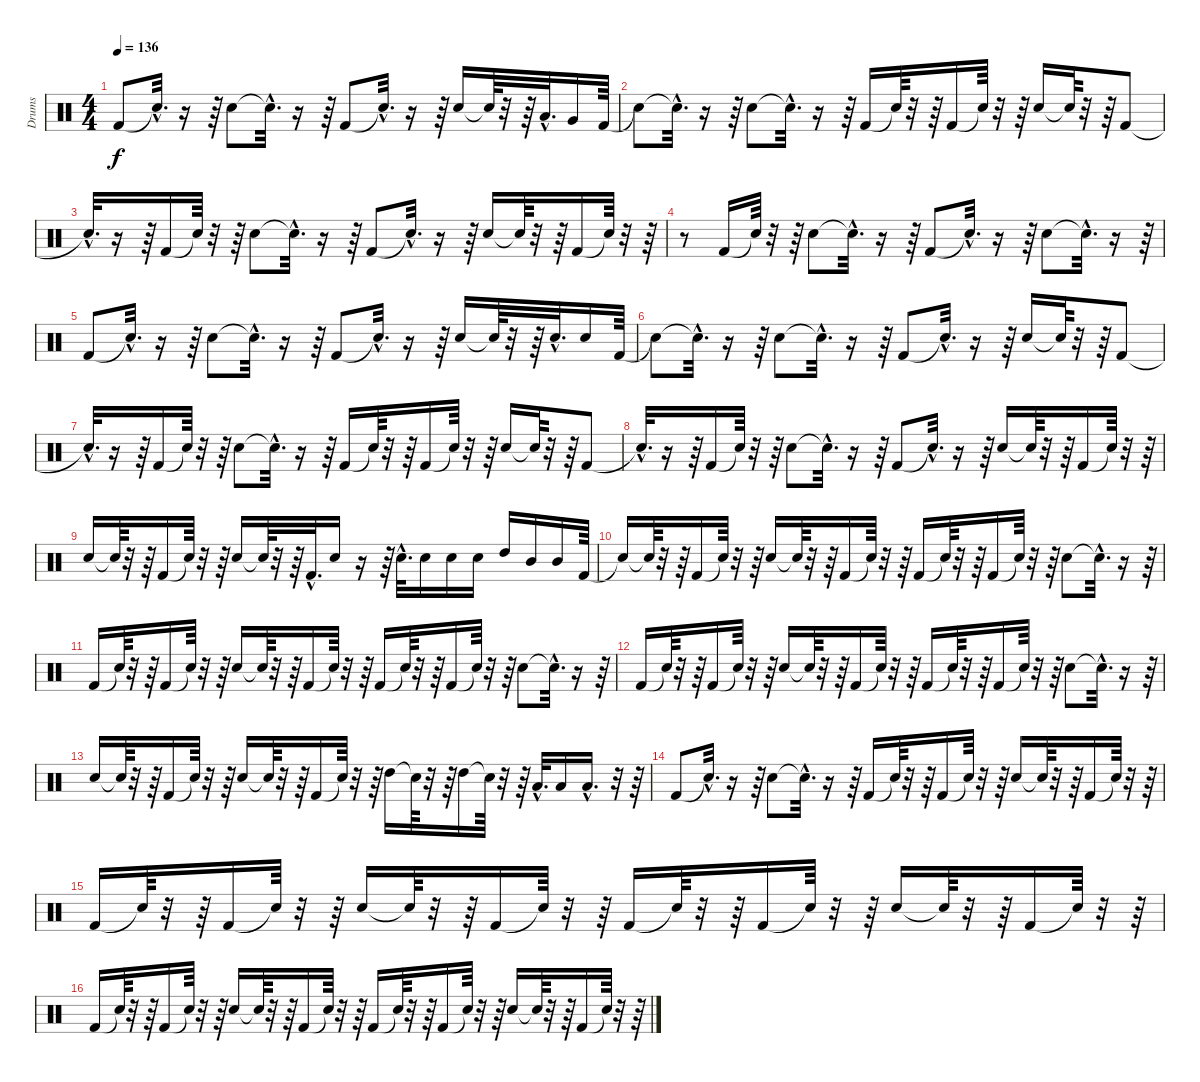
\track ("Drums" "Drums") {instrument percussion}
\staff {score}
\articulation defaults
\ts (4 4)
\tempo 136
\clef neutral
\ks c "Kick (hit) 2".8{dy f} "Snare (hit)"{hac t}.32{d}
r.16 r.64 "Snare (hit) 2".8 "Snare (hit)"{hac t}.32{d} r.16 r.64 "Kick (hit) 2".8 "Snare (hit)"{hac t}.32{d} r.16 r.64 "Snare (hit) 2".16 "Snare (hit)"{t}.64 r.32 r.64 "Low Tom (hit)"{hac}.32{d} "Very Low Tom (hit)".16 "Kick (hit) 2".64 |
"Snare (hit)"{t}.8 "Snare (hit)"{hac t}.32{d} r.16 r.64 "Snare (hit) 2".8 "Snare (hit)"{hac t}.32{d} r.16 r.64 "Kick (hit) 2".16 "Snare (hit)"{t}.64 r.32 r.64 "Kick (hit) 2".16 "Snare (hit)"{t}.64 r.32 r.64 "Snare (hit) 2".16 "Snare (hit)"{t}.64 r.32 r.64 "Kick (hit) 2".8 |
"Snare (hit)"{hac t}.32{d} r.16 r.64 "Kick (hit) 2".16 "Snare (hit)"{t}.64 r.32 r.64 "Snare (hit) 2".8 "Snare (hit)"{hac t}.32{d} r.16 r.64 "Kick (hit) 2".8 "Snare (hit)"{hac t}.32{d} r.16 r.64 "Snare (hit) 2".16 "Snare (hit)"{t}.64 r.32 r.64 "Kick (hit) 2".16 "Snare (hit)"{t}.64 r.32 r.64 |
r.8 "Kick (hit) 2".16 "Snare (hit)"{t}.64 r.32 r.64 "Snare (hit) 2".8 "Snare (hit)"{hac t}.32{d} r.16 r.64 "Kick (hit) 2".8 "Snare (hit)"{hac t}.32{d} r.16 r.64 "Snare (hit) 2".8 "Snare (hit)"{hac t}.32{d} r.16 r.64 |
"Kick (hit) 2".8 "Snare (hit)"{hac t}.32{d} r.16 r.64 "Snare (hit) 2".8 "Snare (hit)"{hac t}.32{d} r.16 r.64 "Kick (hit) 2".8 "Snare (hit)"{hac t}.32{d} r.16 r.64 "Snare (hit) 2".16 "Snare (hit)"{t}.64 r.32 r.64 "Snare (hit) 2"{hac}.32{d} "Snare (hit) 2".16 "Kick (hit) 2".64 |
"Snare (hit)"{t}.8 "Snare (hit)"{hac t}.32{d} r.16 r.64 "Snare (hit) 2".8 "Snare (hit)"{hac t}.32{d} r.16 r.64 "Kick (hit) 2".8 "Snare (hit)"{hac t}.32{d} r.16 r.64 "Snare (hit) 2".16 "Snare (hit)"{t}.64 r.32 r.64 "Kick (hit) 2".8 |
"Snare (hit)"{hac t}.32{d} r.16 r.64 "Kick (hit) 2".16 "Snare (hit)"{t}.64 r.32 r.64 "Snare (hit) 2".8 "Snare (hit)"{hac t}.32{d} r.16 r.64 "Kick (hit) 2".16 "Snare (hit)"{t}.64 r.32 r.64 "Kick (hit) 2".16 "Snare (hit)"{t}.64 r.32 r.64 "Snare (hit) 2".16 "Snare (hit)"{t}.64 r.32 r.64 "Kick (hit) 2".8 |
"Snare (hit)"{hac t}.32{d} r.16 r.64 "Kick (hit) 2".16 "Snare (hit)"{t}.64 r.32 r.64 "Snare (hit) 2".8 "Snare (hit)"{hac t}.32{d} r.16 r.64 "Kick (hit) 2".8 "Snare (hit)"{hac t}.32{d} r.16 r.64 "Snare (hit) 2".16 "Snare (hit)"{t}.64 r.32 r.64 "Kick (hit) 2".16 "Snare (hit)"{t}.64 r.32 r.64 |
"Snare (hit) 2".16 "Snare (hit)"{t}.64 r.32 r.64 "Kick (hit) 2".16 "Snare (hit)"{t}.64 r.32 r.64 "Snare (hit) 2".16 "Snare (hit)"{t}.64 r.32 r.64 "Kick (hit) 2"{hac}.32{d} "Snare (hit) 2".16 r.16 r.64 "Snare (hit) 2"{hac}.32{d} "Snare (hit) 2".16 "Snare (hit) 2".16 "Snare (hit) 2".16 "High Tom (hit)".16 "Mid Tom (hit)".16 "Mid Tom (hit)".16 "Kick (hit) 2".64 |
"Snare (hit)"{t}.16 "Snare (hit)"{t}.64 r.32 r.64 "Kick (hit) 2".16 "Snare (hit)"{t}.64 r.32 r.64 "Snare (hit) 2".16 "Snare (hit)"{t}.64 r.32 r.64 "Kick (hit) 2".16 "Snare (hit)"{t}.64 r.32 r.64 "Kick (hit) 2".16 "Snare (hit)"{t}.64 r.32 r.64 "Kick (hit) 2".16 "Snare (hit)"{t}.64 r.32 r.64 "Snare (hit) 2".8 "Snare (hit)"{hac t}.32{d} r.16 r.64 |
"Kick (hit) 2".16 "Snare (hit)"{t}.64 r.32 r.64 "Kick (hit) 2".16 "Snare (hit)"{t}.64 r.32 r.64 "Snare (hit) 2".16 "Snare (hit)"{t}.64 r.32 r.64 "Kick (hit) 2".16 "Snare (hit)"{t}.64 r.32 r.64 "Kick (hit) 2".16 "Snare (hit)"{t}.64 r.32 r.64 "Kick (hit) 2".16 "Snare (hit)"{t}.64 r.32 r.64 "Snare (hit) 2".8 "Snare (hit)"{hac t}.32{d} r.16 r.64 |
"Kick (hit) 2".16 "Snare (hit)"{t}.64 r.32 r.64 "Kick (hit) 2".16 "Snare (hit)"{t}.64 r.32 r.64 "Snare (hit) 2".16 "Snare (hit)"{t}.64 r.32 r.64 "Kick (hit) 2".16 "Snare (hit)"{t}.64 r.32 r.64 "Kick (hit) 2".16 "Snare (hit)"{t}.64 r.32 r.64 "Kick (hit) 2".16 "Snare (hit)"{t}.64 r.32 r.64 "Snare (hit) 2".8 "Snare (hit)"{hac t}.32{d} r.16 r.64 |
"Snare (hit) 2".16 "Snare (hit)"{t}.64 r.32 r.64 "Kick (hit) 2".16 "Snare (hit)"{t}.64 r.32 r.64 "Snare (hit) 2".16 "Snare (hit)"{t}.64 r.32 r.64 "Kick (hit) 2".16 "Snare (hit)"{t}.64 r.32 r.64 "High Tom (hit)".16 "Snare (hit)"{t}.64 r.32 r.64 "High Tom (hit)".16 "Snare (hit)"{t}.64 r.32 r.64 "Low Tom (hit)"{hac}.32{d} "Low Tom (hit)".16 "Low Floor Tom (hit)"{hac}.16{d} r.32 r.64 |
"Kick (hit) 2".8 "Snare (hit)"{hac t}.32{d} r.16 r.64 "Snare (hit) 2".8 "Snare (hit)"{hac t}.32{d} r.16 r.64 "Kick (hit) 2".16 "Snare (hit)"{t}.64 r.32 r.64 "Kick (hit) 2".16 "Snare (hit)"{t}.64 r.32 r.64 "Snare (hit) 2".16 "Snare (hit)"{t}.64 r.32 r.64 "Kick (hit) 2".16 "Snare (hit)"{t}.64 r.32 r.64 |
"Kick (hit) 2".16 "Snare (hit)"{t}.64 r.32 r.64 "Kick (hit) 2".16 "Snare (hit)"{t}.64 r.32 r.64 "Snare (hit) 2".16 "Snare (hit)"{t}.64 r.32 r.64 "Kick (hit) 2".16 "Snare (hit)"{t}.64 r.32 r.64 "Kick (hit) 2".16 "Snare (hit)"{t}.64 r.32 r.64 "Kick (hit) 2".16 "Snare (hit)"{t}.64 r.32 r.64 "Snare (hit) 2".16 "Snare (hit)"{t}.64 r.32 r.64 "Kick (hit) 2".16 "Snare (hit)"{t}.64 r.32 r.64 |
"Kick (hit) 2".16 "Snare (hit)"{t}.64 r.32 r.64 "Kick (hit) 2".16 "Snare (hit)"{t}.64 r.32 r.64 "Snare (hit) 2".16 "Snare (hit)"{t}.64 r.32 r.64 "Kick (hit) 2".16 "Snare (hit)"{t}.64 r.32 r.64 "Kick (hit) 2".16 "Snare (hit)"{t}.64 r.32 r.64 "Kick (hit) 2".16 "Snare (hit)"{t}.64 r.32 r.64 "Snare (hit) 2".16 "Snare (hit)"{t}.64 r.32 r.64 "Kick (hit) 2".16 "Snare (hit)"{t}.64 r.32 r.64
